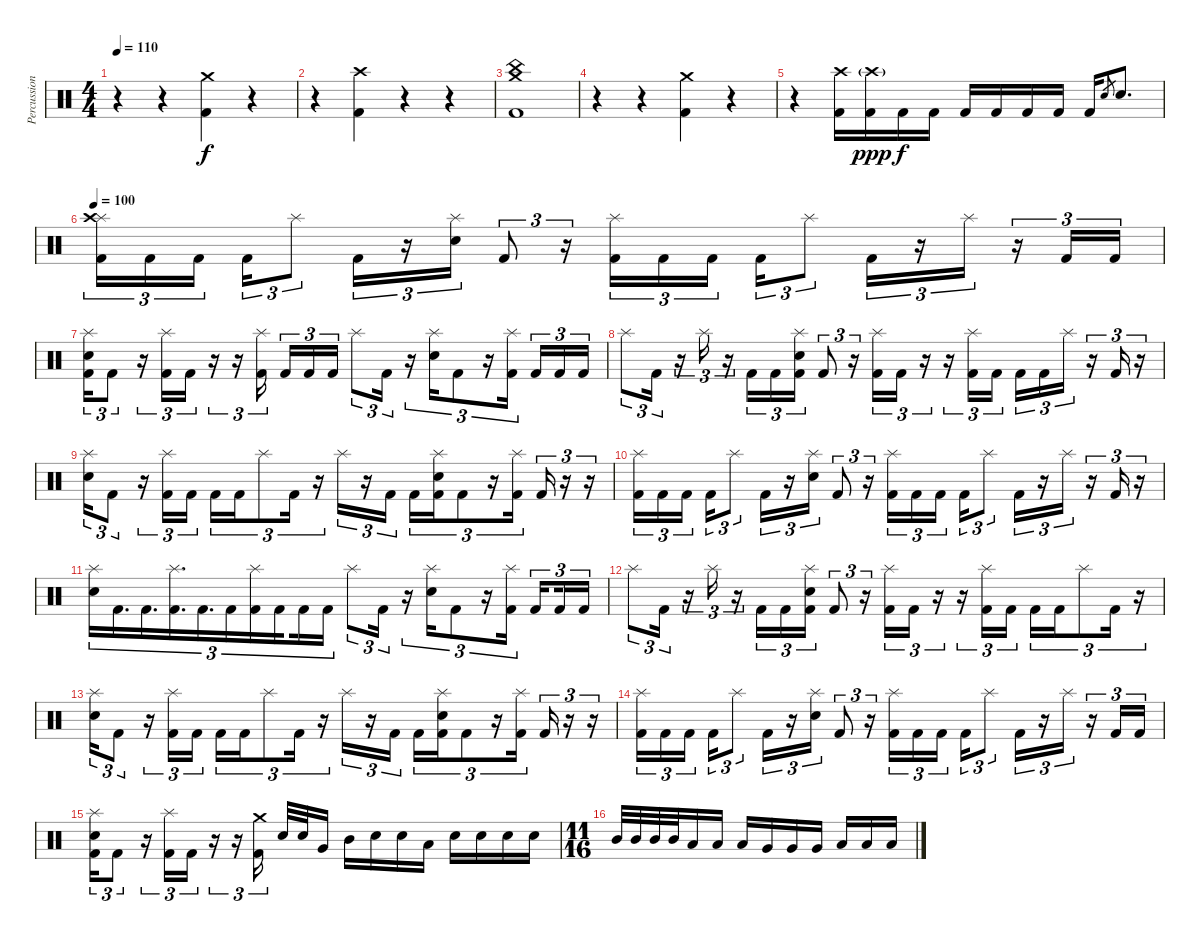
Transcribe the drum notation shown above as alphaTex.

\track ("Percussion" "Percussion") {instrument percussion}
\staff {score}
\articulation defaults
\ts (4 4)
\tempo 110
\clef neutral
\ks c
r.4{dy f} r.4 ("Crash medium (hit)" "Kick (hit) 2").4 r.4 |
r.4 ("Crash high (hit)" "Kick (hit) 2").4 r.4 r.4 |
("Crash medium (hit)" "China (hit)" "Kick (hit) 2").1 |
r.4 r.4 ("Crash medium (hit)" "Kick (hit) 2").4 r.4 |
r.4 ("Crash high (hit)" "Kick (hit) 2").16 ("Crash high (hit)"{g} "Kick (hit) 2").16{dy ppp} "Kick (hit) 2".16{dy f} "Kick (hit) 2".16 "Kick (hit) 2".16 "Kick (hit) 2".16 "Kick (hit) 2".16 "Kick (hit) 2".16 "Kick (hit) 2".16 "Electric Snare (hit)".8{gr} "Electric Snare (hit)".8{d} |
\tempo 100
("Splash (hit)" "Crash high (hit)" "Kick (hit) 2").16{tu (3 2)} "Kick (hit) 2".16{tu (3 2)} "Kick (hit) 2".16{tu (3 2) beam splitsecondary} "Kick (hit) 2".16{tu (3 2)} "Splash (hit)".8{tu (3 2)} "Kick (hit) 2".16{tu (3 2)} r.16{tu (3 2)} ("Splash (hit)" "Electric Snare (hit)").16{tu (3 2)} "Kick (hit) 2".8{tu (3 2)} r.16{tu (3 2)} ("Splash (hit)" "Kick (hit) 2").16{tu (3 2)} "Kick (hit) 2".16{tu (3 2)} "Kick (hit) 2".16{tu (3 2) beam splitsecondary} "Kick (hit) 2".16{tu (3 2)} "Splash (hit)".8{tu (3 2)} "Kick (hit) 2".16{tu (3 2)} r.16{tu (3 2)} "Splash (hit)".16{tu (3 2)} r.16{tu (3 2)} "Kick (hit) 2".16{tu (3 2)} "Kick (hit) 2".16{tu (3 2)} |
("Splash (hit)" "Electric Snare (hit)" "Kick (hit) 2").16{tu (3 2)} "Kick (hit) 2".8{tu (3 2)} r.16{tu (3 2)} ("Splash (hit)" "Kick (hit) 2").16{tu (3 2)} "Kick (hit) 2".16{tu (3 2)} r.16{tu (3 2)} r.16{tu (3 2)} ("Splash (hit)" "Kick (hit) 2").16{tu (3 2) beam splitsecondary} "Kick (hit) 2".16{tu (3 2)} "Kick (hit) 2".16{tu (3 2)} "Kick (hit) 2".16{tu (3 2)} "Splash (hit)".8{tu (3 2)} "Kick (hit) 2".16{tu (3 2)} r.16{tu (3 2)} ("Splash (hit)" "Electric Snare (hit)").16{tu (3 2)} "Kick (hit) 2".8{tu (3 2)} r.16{tu (3 2)} ("Splash (hit)" "Kick (hit) 2").16{tu (3 2) beam splitsecondary} "Kick (hit) 2".16{tu (3 2)} "Kick (hit) 2".16{tu (3 2)} "Kick (hit) 2".16{tu (3 2)} |
"Splash (hit)".8{tu (3 2)} "Kick (hit) 2".16{tu (3 2)} r.16{tu (3 2)} "Splash (hit)".16{tu (3 2)} r.16{tu (3 2)} "Kick (hit) 2".16{tu (3 2)} "Kick (hit) 2".16{tu (3 2)} ("Splash (hit)" "Electric Snare (hit)" "Kick (hit) 2").16{tu (3 2)} "Kick (hit) 2".8{tu (3 2)} r.16{tu (3 2)} ("Splash (hit)" "Kick (hit) 2").16{tu (3 2)} "Kick (hit) 2".16{tu (3 2)} r.16{tu (3 2)} r.16{tu (3 2)} ("Splash (hit)" "Kick (hit) 2").16{tu (3 2)} "Kick (hit) 2".16{tu (3 2)} "Kick (hit) 2".16{tu (3 2)} "Kick (hit) 2".16{tu (3 2)} "Splash (hit)".16{tu (3 2)} r.16{tu (3 2)} "Kick (hit) 2".16{tu (3 2)} r.16{tu (3 2)} |
("Splash (hit)" "Electric Snare (hit)").16{tu (3 2)} "Kick (hit) 2".8{tu (3 2)} r.16{tu (3 2)} ("Splash (hit)" "Kick (hit) 2").16{tu (3 2)} "Kick (hit) 2".16{tu (3 2)} "Kick (hit) 2".16{tu (3 2)} "Kick (hit) 2".16{tu (3 2)} "Splash (hit)".8{tu (3 2)} "Kick (hit) 2".16{tu (3 2)} r.16{tu (3 2)} "Splash (hit)".16{tu (3 2)} r.16{tu (3 2)} "Kick (hit) 2".16{tu (3 2) beam splitsecondary} "Kick (hit) 2".16{tu (3 2)} ("Splash (hit)" "Electric Snare (hit)" "Kick (hit) 2").16{tu (3 2)} "Kick (hit) 2".8{tu (3 2)} r.16{tu (3 2)} ("Splash (hit)" "Kick (hit) 2").16{tu (3 2)} "Kick (hit) 2".16{tu (3 2)} r.16{tu (3 2)} r.16{tu (3 2)} |
("Splash (hit)" "Kick (hit) 2").16{tu (3 2)} "Kick (hit) 2".16{tu (3 2)} "Kick (hit) 2".16{tu (3 2) beam splitsecondary} "Kick (hit) 2".16{tu (3 2)} "Splash (hit)".8{tu (3 2)} "Kick (hit) 2".16{tu (3 2)} r.16{tu (3 2)} ("Splash (hit)" "Electric Snare (hit)").16{tu (3 2)} "Kick (hit) 2".8{tu (3 2)} r.16{tu (3 2)} ("Splash (hit)" "Kick (hit) 2").16{tu (3 2)} "Kick (hit) 2".16{tu (3 2)} "Kick (hit) 2".16{tu (3 2) beam splitsecondary} "Kick (hit) 2".16{tu (3 2)} "Splash (hit)".8{tu (3 2)} "Kick (hit) 2".16{tu (3 2)} r.16{tu (3 2)} "Splash (hit)".16{tu (3 2)} r.16{tu (3 2)} "Kick (hit) 2".16{tu (3 2)} r.16{tu (3 2)} |
("Splash (hit)" "Electric Snare (hit)").16{tu (3 2)} "Kick (hit) 2".16{d tu (3 2)} "Kick (hit) 2".16{d tu (3 2)} ("Splash (hit)" "Kick (hit) 2").16{d tu (3 2)} "Kick (hit) 2".16{d tu (3 2)} "Kick (hit) 2".16{tu (3 2)} ("Splash (hit)" "Kick (hit) 2").16{tu (3 2)} "Kick (hit) 2".16{tu (3 2) beam splitsecondary} "Kick (hit) 2".16{tu (3 2)} "Kick (hit) 2".16{tu (3 2)} "Splash (hit)".8{tu (3 2)} "Kick (hit) 2".16{tu (3 2)} r.16{tu (3 2)} ("Splash (hit)" "Electric Snare (hit)").16{tu (3 2)} "Kick (hit) 2".8{tu (3 2)} r.16{tu (3 2)} ("Splash (hit)" "Kick (hit) 2").16{tu (3 2)} "Kick (hit) 2".16{tu (3 2) beam splitsecondary} "Kick (hit) 2".16{tu (3 2)} "Kick (hit) 2".16{tu (3 2)} |
"Splash (hit)".8{tu (3 2)} "Kick (hit) 2".16{tu (3 2)} r.16{tu (3 2)} "Splash (hit)".16{tu (3 2)} r.16{tu (3 2)} "Kick (hit) 2".16{tu (3 2)} "Kick (hit) 2".16{tu (3 2)} ("Splash (hit)" "Electric Snare (hit)" "Kick (hit) 2").16{tu (3 2)} "Kick (hit) 2".8{tu (3 2)} r.16{tu (3 2)} ("Splash (hit)" "Kick (hit) 2").16{tu (3 2)} "Kick (hit) 2".16{tu (3 2)} r.16{tu (3 2)} r.16{tu (3 2)} ("Splash (hit)" "Kick (hit) 2").16{tu (3 2)} "Kick (hit) 2".16{tu (3 2)} "Kick (hit) 2".16{tu (3 2)} "Kick (hit) 2".16{tu (3 2)} "Splash (hit)".8{tu (3 2)} "Kick (hit) 2".16{tu (3 2)} r.16{tu (3 2)} |
("Splash (hit)" "Electric Snare (hit)").16{tu (3 2)} "Kick (hit) 2".8{tu (3 2)} r.16{tu (3 2)} ("Splash (hit)" "Kick (hit) 2").16{tu (3 2)} "Kick (hit) 2".16{tu (3 2)} "Kick (hit) 2".16{tu (3 2)} "Kick (hit) 2".16{tu (3 2)} "Splash (hit)".8{tu (3 2)} "Kick (hit) 2".16{tu (3 2)} r.16{tu (3 2)} "Splash (hit)".16{tu (3 2)} r.16{tu (3 2)} "Kick (hit) 2".16{tu (3 2) beam splitsecondary} "Kick (hit) 2".16{tu (3 2)} ("Splash (hit)" "Electric Snare (hit)" "Kick (hit) 2").16{tu (3 2)} "Kick (hit) 2".8{tu (3 2)} r.16{tu (3 2)} ("Splash (hit)" "Kick (hit) 2").16{tu (3 2)} "Kick (hit) 2".16{tu (3 2)} r.16{tu (3 2)} r.16{tu (3 2)} |
("Splash (hit)" "Kick (hit) 2").16{tu (3 2)} "Kick (hit) 2".16{tu (3 2)} "Kick (hit) 2".16{tu (3 2) beam splitsecondary} "Kick (hit) 2".16{tu (3 2)} "Splash (hit)".8{tu (3 2)} "Kick (hit) 2".16{tu (3 2)} r.16{tu (3 2)} ("Splash (hit)" "Electric Snare (hit)").16{tu (3 2)} "Kick (hit) 2".8{tu (3 2)} r.16{tu (3 2)} ("Splash (hit)" "Kick (hit) 2").16{tu (3 2)} "Kick (hit) 2".16{tu (3 2)} "Kick (hit) 2".16{tu (3 2) beam splitsecondary} "Kick (hit) 2".16{tu (3 2)} "Splash (hit)".8{tu (3 2)} "Kick (hit) 2".16{tu (3 2)} r.16{tu (3 2)} "Splash (hit)".16{tu (3 2)} r.16{tu (3 2)} "Kick (hit) 2".16{tu (3 2)} "Kick (hit) 2".16{tu (3 2)} |
("Splash (hit)" "Electric Snare (hit)" "Kick (hit) 2").16{tu (3 2)} "Kick (hit) 2".8{tu (3 2)} r.16{tu (3 2)} ("Splash (hit)" "Kick (hit) 2").16{tu (3 2)} "Kick (hit) 2".16{tu (3 2)} r.16{tu (3 2)} r.16{tu (3 2)} ("Crash medium (hit)" "Kick (hit) 2").16{tu (3 2) beam splitsecondary} "Electric Snare (hit)".32 "Electric Snare (hit)".32 "Very Low Tom (hit)".16 "Mid Tom (hit)".16 "Electric Snare (hit)".16 "Electric Snare (hit)".16 "Low Tom (hit)".16 "Electric Snare (hit)".16 "Electric Snare (hit)".16 "Electric Snare (hit)".16 "Electric Snare (hit)".16 |
\ts (11 16)
"Mid Tom (hit)".32 "Mid Tom (hit)".32 "Mid Tom (hit)".32 "Mid Tom (hit)".32 "Low Tom (hit)".16 "Low Tom (hit)".16 "Low Tom (hit)".16 "Very Low Tom (hit)".16 "Very Low Tom (hit)".16 "Very Low Tom (hit)".16 "Low Floor Tom (hit)".16 "Low Floor Tom (hit)".16 "Low Floor Tom (hit)".16
